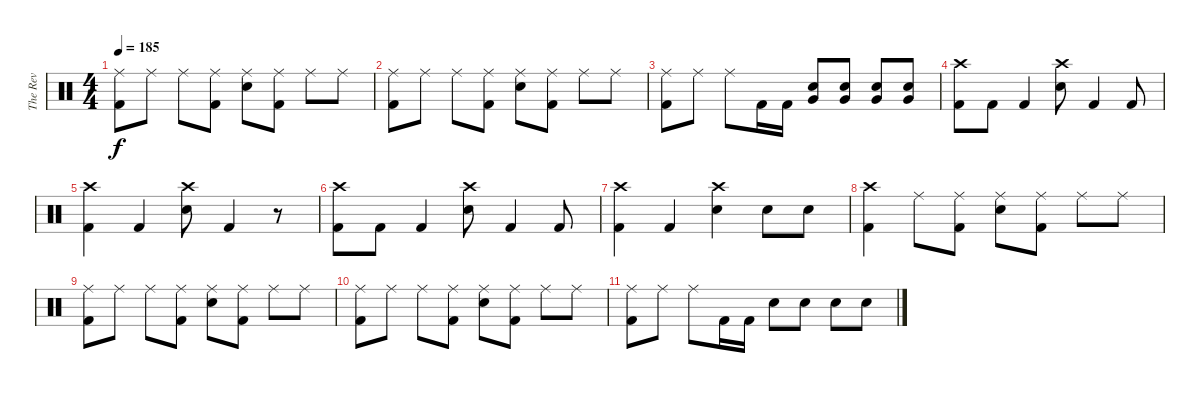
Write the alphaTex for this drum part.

\track ("The Rev" "The Rev") {instrument percussion}
\staff {score}
\articulation defaults
\ts (4 4)
\tempo 185
\clef neutral
\ks c
("Ride (middle)" "Kick (hit) 2").8{dy f} "Ride (middle)".8 "Ride (middle)".8 ("Ride (middle)" "Kick (hit) 2").8 ("Ride (middle)" "Electric Snare (hit)").8 ("Ride (middle)" "Kick (hit) 2").8 "Ride (middle)".8 "Ride (middle)".8 |
("Ride (middle)" "Kick (hit) 2").8 "Ride (middle)".8 "Ride (middle)".8 ("Ride (middle)" "Kick (hit) 2").8 ("Ride (middle)" "Electric Snare (hit)").8 ("Ride (middle)" "Kick (hit) 2").8 "Ride (middle)".8 "Ride (middle)".8 |
("Ride (middle)" "Kick (hit) 2").8 "Ride (middle)".8 "Ride (middle)".8 "Kick (hit) 2".16 "Kick (hit) 2".16 ("Very Low Tom (hit)" "Electric Snare (hit)").8 ("Very Low Tom (hit)" "Electric Snare (hit)").8 ("Very Low Tom (hit)" "Electric Snare (hit)").8 ("Very Low Tom (hit)" "Electric Snare (hit)").8 |
("Crash high (hit)" "Kick (hit) 2").8 "Kick (hit) 2".8 "Kick (hit) 2".4 ("Crash high (hit)" "Electric Snare (hit)").8 "Kick (hit) 2".4 "Kick (hit) 2".8 |
("Crash high (hit)" "Kick (hit) 2").4 "Kick (hit) 2".4 ("Crash high (hit)" "Electric Snare (hit)").8 "Kick (hit) 2".4 r.8 |
("Crash high (hit)" "Kick (hit) 2").8 "Kick (hit) 2".8 "Kick (hit) 2".4 ("Crash high (hit)" "Electric Snare (hit)").8 "Kick (hit) 2".4 "Kick (hit) 2".8 |
("Crash high (hit)" "Kick (hit) 2").4 "Kick (hit) 2".4 ("Crash high (hit)" "Electric Snare (hit)").4 "Electric Snare (hit)".8 "Electric Snare (hit)".8 |
("Crash high (hit)" "Kick (hit) 2").4 "Ride (middle)".8 ("Ride (middle)" "Kick (hit) 2").8 ("Ride (middle)" "Electric Snare (hit)").8 ("Ride (middle)" "Kick (hit) 2").8 "Ride (middle)".8 "Ride (middle)".8 |
("Ride (middle)" "Kick (hit) 2").8 "Ride (middle)".8 "Ride (middle)".8 ("Ride (middle)" "Kick (hit) 2").8 ("Ride (middle)" "Electric Snare (hit)").8 ("Ride (middle)" "Kick (hit) 2").8 "Ride (middle)".8 "Ride (middle)".8 |
("Ride (middle)" "Kick (hit) 2").8 "Ride (middle)".8 "Ride (middle)".8 ("Ride (middle)" "Kick (hit) 2").8 ("Ride (middle)" "Electric Snare (hit)").8 ("Ride (middle)" "Kick (hit) 2").8 "Ride (middle)".8 "Ride (middle)".8 |
("Ride (middle)" "Kick (hit) 2").8 "Ride (middle)".8 "Ride (middle)".8 "Kick (hit) 2".16 "Kick (hit) 2".16 "Electric Snare (hit)".8 "Electric Snare (hit)".8 "Electric Snare (hit)".8 "Electric Snare (hit)".8
